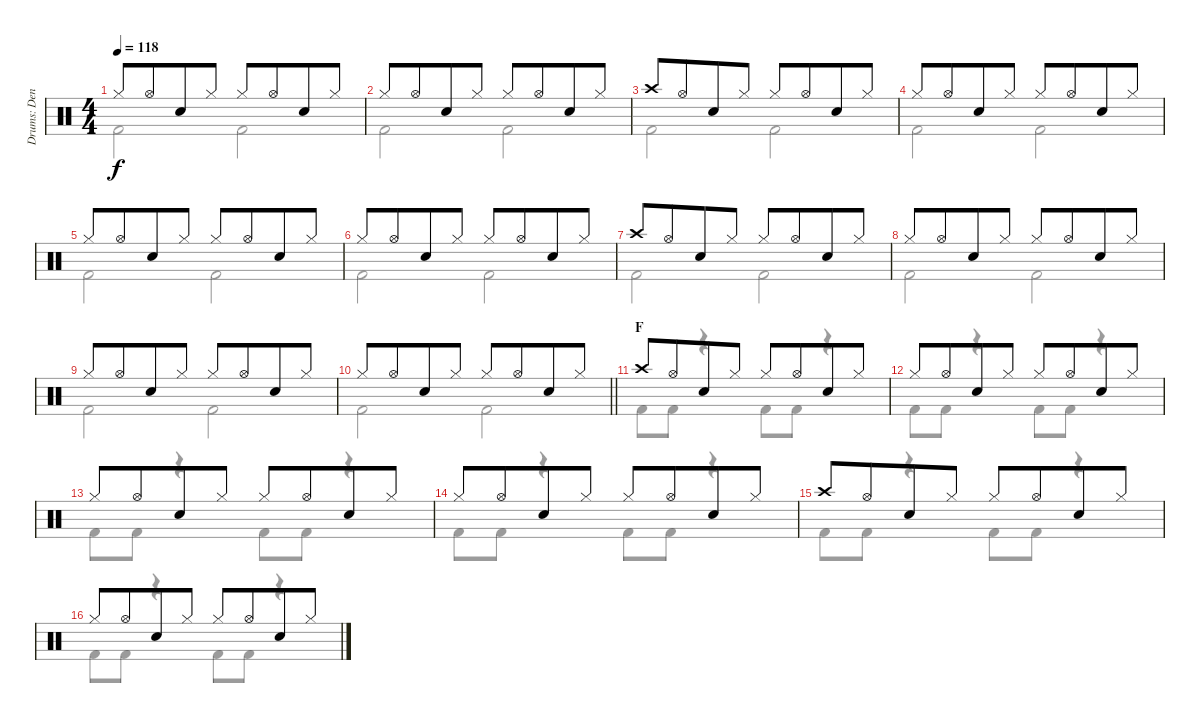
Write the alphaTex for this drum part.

\track ("Drums: Denny" "Drums: Den") {instrument percussion}
\staff {score}
\articulation defaults
\voice
\ts (4 4)
\tempo 118
\clef neutral
\ks c "Hi-Hat (closed)".8{dy f} "Hi-Hat (open)".8{beam merge} "Snare (hit) 2".8 "Hi-Hat (closed)".8 "Hi-Hat (closed)".8 "Hi-Hat (open)".8{beam merge} "Snare (hit) 2".8 "Hi-Hat (closed)".8
|
"Hi-Hat (closed)".8 "Hi-Hat (open)".8{beam merge} "Snare (hit) 2".8 "Hi-Hat (closed)".8 "Hi-Hat (closed)".8 "Hi-Hat (open)".8{beam merge} "Snare (hit) 2".8 "Hi-Hat (closed)".8 |
"Crash high (hit)".8 "Hi-Hat (open)".8{beam merge} "Snare (hit) 2".8 "Hi-Hat (closed)".8 "Hi-Hat (closed)".8 "Hi-Hat (open)".8{beam merge} "Snare (hit) 2".8 "Hi-Hat (closed)".8 |
"Hi-Hat (closed)".8 "Hi-Hat (open)".8{beam merge} "Snare (hit) 2".8 "Hi-Hat (closed)".8 "Hi-Hat (closed)".8 "Hi-Hat (open)".8{beam merge} "Snare (hit) 2".8 "Hi-Hat (closed)".8 |
"Hi-Hat (closed)".8 "Hi-Hat (open)".8{beam merge} "Snare (hit) 2".8 "Hi-Hat (closed)".8 "Hi-Hat (closed)".8 "Hi-Hat (open)".8{beam merge} "Snare (hit) 2".8 "Hi-Hat (closed)".8 |
"Hi-Hat (closed)".8 "Hi-Hat (open)".8{beam merge} "Snare (hit) 2".8 "Hi-Hat (closed)".8 "Hi-Hat (closed)".8 "Hi-Hat (open)".8{beam merge} "Snare (hit) 2".8 "Hi-Hat (closed)".8 |
"Crash high (hit)".8 "Hi-Hat (open)".8{beam merge} "Snare (hit) 2".8 "Hi-Hat (closed)".8 "Hi-Hat (closed)".8 "Hi-Hat (open)".8{beam merge} "Snare (hit) 2".8 "Hi-Hat (closed)".8 |
"Hi-Hat (closed)".8 "Hi-Hat (open)".8{beam merge} "Snare (hit) 2".8 "Hi-Hat (closed)".8 "Hi-Hat (closed)".8 "Hi-Hat (open)".8{beam merge} "Snare (hit) 2".8 "Hi-Hat (closed)".8 |
"Hi-Hat (closed)".8 "Hi-Hat (open)".8{beam merge} "Snare (hit) 2".8 "Hi-Hat (closed)".8 "Hi-Hat (closed)".8 "Hi-Hat (open)".8{beam merge} "Snare (hit) 2".8 "Hi-Hat (closed)".8 |
\barLineRight lightlight "Hi-Hat (closed)".8 "Hi-Hat (open)".8{beam merge} "Snare (hit) 2".8 "Hi-Hat (closed)".8 "Hi-Hat (closed)".8 "Hi-Hat (open)".8{beam merge} "Snare (hit) 2".8 "Hi-Hat (closed)".8
|
\section ("" "F")
"Crash high (hit)".8 "Hi-Hat (open)".8{beam merge} "Snare (hit) 2".8 "Hi-Hat (closed)".8 "Hi-Hat (closed)".8 "Hi-Hat (open)".8{beam merge} "Snare (hit) 2".8 "Hi-Hat (closed)".8 |
"Hi-Hat (closed)".8 "Hi-Hat (open)".8{beam merge} "Snare (hit) 2".8 "Hi-Hat (closed)".8 "Hi-Hat (closed)".8 "Hi-Hat (open)".8{beam merge} "Snare (hit) 2".8 "Hi-Hat (closed)".8 |
"Hi-Hat (closed)".8 "Hi-Hat (open)".8{beam merge} "Snare (hit) 2".8 "Hi-Hat (closed)".8 "Hi-Hat (closed)".8 "Hi-Hat (open)".8{beam merge} "Snare (hit) 2".8 "Hi-Hat (closed)".8 |
"Hi-Hat (closed)".8 "Hi-Hat (open)".8{beam merge} "Snare (hit) 2".8 "Hi-Hat (closed)".8 "Hi-Hat (closed)".8 "Hi-Hat (open)".8{beam merge} "Snare (hit) 2".8 "Hi-Hat (closed)".8 |
"Crash high (hit)".8 "Hi-Hat (open)".8{beam merge} "Snare (hit) 2".8 "Hi-Hat (closed)".8 "Hi-Hat (closed)".8 "Hi-Hat (open)".8{beam merge} "Snare (hit) 2".8 "Hi-Hat (closed)".8 |
"Hi-Hat (closed)".8 "Hi-Hat (open)".8{beam merge} "Snare (hit) 2".8 "Hi-Hat (closed)".8 "Hi-Hat (closed)".8 "Hi-Hat (open)".8{beam merge} "Snare (hit) 2".8 "Hi-Hat (closed)".8
\voice
\clef neutral
\ottava regular
\simile none
\ks c "Kick (hit) 2".2{dy f} "Kick (hit) 2".2
|
"Kick (hit) 2".2 "Kick (hit) 2".2 |
"Kick (hit) 2".2 "Kick (hit) 2".2 |
"Kick (hit) 2".2 "Kick (hit) 2".2 |
"Kick (hit) 2".2 "Kick (hit) 2".2 |
"Kick (hit) 2".2 "Kick (hit) 2".2 |
"Kick (hit) 2".2 "Kick (hit) 2".2 |
"Kick (hit) 2".2 "Kick (hit) 2".2 |
"Kick (hit) 2".2 "Kick (hit) 2".2 |
\barLineRight lightlight "Kick (hit) 2".2 "Kick (hit) 2".2
|
"Kick (hit) 2".8 "Kick (hit) 2".8 r.4 "Kick (hit) 2".8 "Kick (hit) 2".8 r.4 |
"Kick (hit) 2".8 "Kick (hit) 2".8 r.4 "Kick (hit) 2".8 "Kick (hit) 2".8 r.4 |
"Kick (hit) 2".8 "Kick (hit) 2".8 r.4 "Kick (hit) 2".8 "Kick (hit) 2".8 r.4 |
"Kick (hit) 2".8 "Kick (hit) 2".8 r.4 "Kick (hit) 2".8 "Kick (hit) 2".8 r.4 |
"Kick (hit) 2".8 "Kick (hit) 2".8 r.4 "Kick (hit) 2".8 "Kick (hit) 2".8 r.4 |
"Kick (hit) 2".8 "Kick (hit) 2".8 r.4 "Kick (hit) 2".8 "Kick (hit) 2".8 r.4
